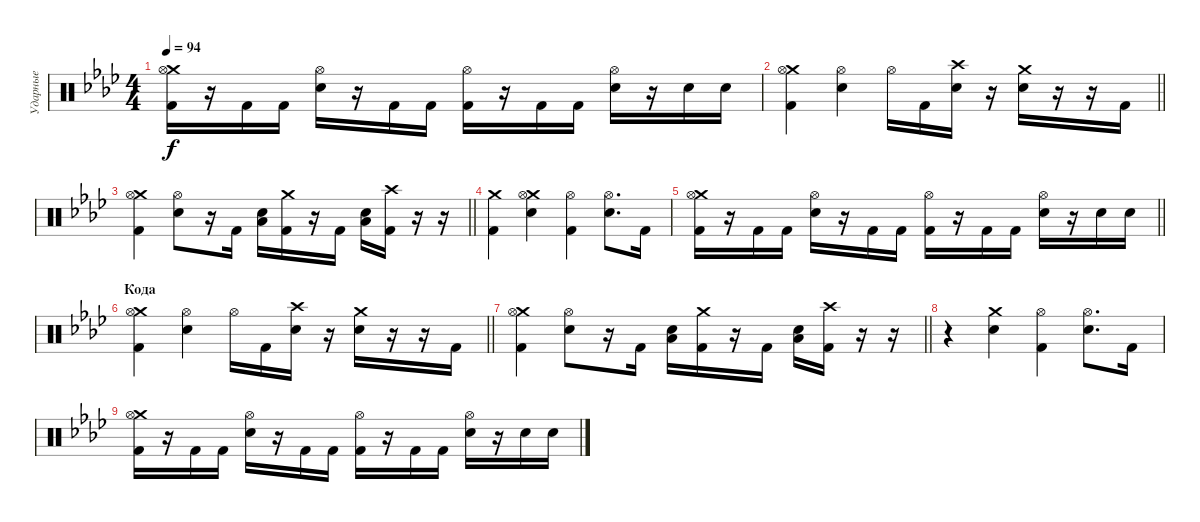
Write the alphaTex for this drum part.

\track ("Ударные" "Ударные") {instrument percussion}
\staff {score}
\articulation defaults
\ts (4 4)
\tempo 94
\clef neutral
\ks fminor
("Crash medium (hit)" "Kick (hit) 2" "Hi-Hat (open)").16{dy f} r.16 "Kick (hit) 2".16 "Kick (hit) 2".16 ("Electric Snare (hit)" "Hi-Hat (open)").16 r.16 "Kick (hit) 2".16 "Kick (hit) 2".16 ("Kick (hit) 2" "Hi-Hat (open)").16 r.16 "Kick (hit) 2".16 "Kick (hit) 2".16 ("Electric Snare (hit)" "Hi-Hat (open)").16 r.16 "Electric Snare (hit)".16 "Electric Snare (hit)".16 |
\barLineRight lightlight
("Crash medium (hit)" "Kick (hit) 2" "Hi-Hat (open)").4 ("Electric Snare (hit)" "Hi-Hat (open)").4 "Hi-Hat (open)".16 "Kick (hit) 2".16 ("Crash high (hit)" "Electric Snare (hit)").16 r.16 ("Crash medium (hit)" "Electric Snare (hit)").16 r.16 r.16 "Kick (hit) 2".16 |
\barLineRight lightlight
("Crash medium (hit)" "Kick (hit) 2" "Hi-Hat (open)").4 ("Electric Snare (hit)" "Hi-Hat (open)").8 r.16 "Kick (hit) 2".16 ("Electric Snare (hit)" "Low Tom (hit)").16 ("Crash medium (hit)" "Kick (hit) 2").16 r.16 "Kick (hit) 2".16 ("Electric Snare (hit)" "Low Tom (hit)").16 ("Crash high (hit)" "Kick (hit) 2").16 r.16 r.16 |
("Crash medium (hit)" "Kick (hit) 2").4 ("Crash medium (hit)" "Electric Snare (hit)" "Hi-Hat (open)").4 ("Kick (hit) 2" "Hi-Hat (open)").4 ("Electric Snare (hit)" "Hi-Hat (open)").8{d} "Kick (hit) 2".16 |
\barLineRight lightlight
("Crash medium (hit)" "Kick (hit) 2" "Hi-Hat (open)").16 r.16 "Kick (hit) 2".16 "Kick (hit) 2".16 ("Electric Snare (hit)" "Hi-Hat (open)").16 r.16 "Kick (hit) 2".16 "Kick (hit) 2".16 ("Kick (hit) 2" "Hi-Hat (open)").16 r.16 "Kick (hit) 2".16 "Kick (hit) 2".16 ("Electric Snare (hit)" "Hi-Hat (open)").16 r.16 "Electric Snare (hit)".16 "Electric Snare (hit)".16 |
\section ("" "Кода")
\barLineRight lightlight
("Crash medium (hit)" "Kick (hit) 2" "Hi-Hat (open)").4 ("Electric Snare (hit)" "Hi-Hat (open)").4 "Hi-Hat (open)".16 "Kick (hit) 2".16 ("Crash high (hit)" "Electric Snare (hit)").16 r.16 ("Crash medium (hit)" "Electric Snare (hit)").16 r.16 r.16 "Kick (hit) 2".16 |
\barLineRight lightlight
("Crash medium (hit)" "Kick (hit) 2" "Hi-Hat (open)").4 ("Electric Snare (hit)" "Hi-Hat (open)").8 r.16 "Kick (hit) 2".16 ("Electric Snare (hit)" "Low Tom (hit)").16 ("Crash medium (hit)" "Kick (hit) 2").16 r.16 "Kick (hit) 2".16 ("Electric Snare (hit)" "Low Tom (hit)").16 ("Crash high (hit)" "Kick (hit) 2").16 r.16 r.16 |
r.4 ("Crash medium (hit)" "Electric Snare (hit)").4 ("Kick (hit) 2" "Hi-Hat (open)").4 ("Electric Snare (hit)" "Hi-Hat (open)").8{d} "Kick (hit) 2".16 |
("Crash medium (hit)" "Kick (hit) 2" "Hi-Hat (open)").16 r.16 "Kick (hit) 2".16 "Kick (hit) 2".16 ("Electric Snare (hit)" "Hi-Hat (open)").16 r.16 "Kick (hit) 2".16 "Kick (hit) 2".16 ("Kick (hit) 2" "Hi-Hat (open)").16 r.16 "Kick (hit) 2".16 "Kick (hit) 2".16 ("Electric Snare (hit)" "Hi-Hat (open)").16 r.16 "Electric Snare (hit)".16 "Electric Snare (hit)".16
